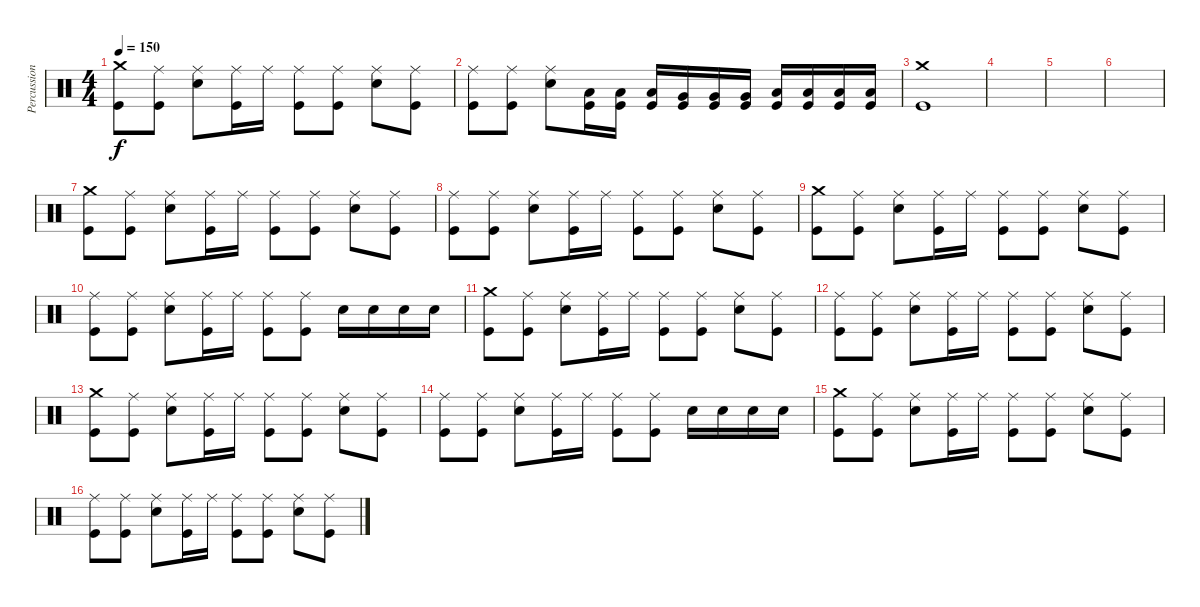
\track ("Percussion" "Percussion") {instrument percussion}
\staff {score}
\articulation defaults
\ts (4 4)
\tempo 150
\clef neutral
\ks c
("Crash medium (hit)" "Kick (hit)").8{dy f} ("Ride (middle)" "Kick (hit)").8 ("Ride (middle)" "Snare (hit) 2").8 ("Ride (middle)" "Kick (hit)").16 "Ride (middle)".16 ("Ride (middle)" "Kick (hit)").8 ("Ride (middle)" "Kick (hit)").8 ("Ride (middle)" "Snare (hit) 2").8 ("Ride (middle)" "Kick (hit)").8 |
("Ride (middle)" "Kick (hit)").8 ("Ride (middle)" "Kick (hit)").8 ("Ride (middle)" "Snare (hit) 2").8 ("Low Tom (hit)" "Kick (hit)").16 ("Low Tom (hit)" "Kick (hit)").16 ("Low Tom (hit)" "Kick (hit)").16 ("Very Low Tom (hit)" "Kick (hit)").16 ("Very Low Tom (hit)" "Kick (hit)").16 ("Very Low Tom (hit)" "Kick (hit)").16 ("Low Floor Tom (hit)" "Kick (hit)").16 ("Low Floor Tom (hit)" "Kick (hit)").16 ("Low Floor Tom (hit)" "Kick (hit)").16 ("Low Floor Tom (hit)" "Kick (hit)").16 |
("Crash medium (hit)" "Kick (hit)").1 |
|
|
|
("Crash medium (hit)" "Kick (hit)").8 ("Ride (middle)" "Kick (hit)").8 ("Ride (middle)" "Snare (hit) 2").8 ("Ride (middle)" "Kick (hit)").16 "Ride (middle)".16 ("Ride (middle)" "Kick (hit)").8 ("Ride (middle)" "Kick (hit)").8 ("Ride (middle)" "Snare (hit) 2").8 ("Ride (middle)" "Kick (hit)").8 |
("Ride (middle)" "Kick (hit)").8 ("Ride (middle)" "Kick (hit)").8 ("Ride (middle)" "Snare (hit) 2").8 ("Ride (middle)" "Kick (hit)").16 "Ride (middle)".16 ("Ride (middle)" "Kick (hit)").8 ("Ride (middle)" "Kick (hit)").8 ("Ride (middle)" "Snare (hit) 2").8 ("Ride (middle)" "Kick (hit)").8 |
("Crash medium (hit)" "Kick (hit)").8 ("Ride (middle)" "Kick (hit)").8 ("Ride (middle)" "Snare (hit) 2").8 ("Ride (middle)" "Kick (hit)").16 "Ride (middle)".16 ("Ride (middle)" "Kick (hit)").8 ("Ride (middle)" "Kick (hit)").8 ("Ride (middle)" "Snare (hit) 2").8 ("Ride (middle)" "Kick (hit)").8 |
("Ride (middle)" "Kick (hit)").8 ("Ride (middle)" "Kick (hit)").8 ("Ride (middle)" "Snare (hit) 2").8 ("Ride (middle)" "Kick (hit)").16 "Ride (middle)".16 ("Ride (middle)" "Kick (hit)").8 ("Ride (middle)" "Kick (hit)").8 "Snare (hit) 2".16 "Snare (hit) 2".16 "Snare (hit) 2".16 "Snare (hit) 2".16 |
("Crash medium (hit)" "Kick (hit)").8 ("Ride (middle)" "Kick (hit)").8 ("Ride (middle)" "Snare (hit) 2").8 ("Ride (middle)" "Kick (hit)").16 "Ride (middle)".16 ("Ride (middle)" "Kick (hit)").8 ("Ride (middle)" "Kick (hit)").8 ("Ride (middle)" "Snare (hit) 2").8 ("Ride (middle)" "Kick (hit)").8 |
("Ride (middle)" "Kick (hit)").8 ("Ride (middle)" "Kick (hit)").8 ("Ride (middle)" "Snare (hit) 2").8 ("Ride (middle)" "Kick (hit)").16 "Ride (middle)".16 ("Ride (middle)" "Kick (hit)").8 ("Ride (middle)" "Kick (hit)").8 ("Ride (middle)" "Snare (hit) 2").8 ("Ride (middle)" "Kick (hit)").8 |
("Crash medium (hit)" "Kick (hit)").8 ("Ride (middle)" "Kick (hit)").8 ("Ride (middle)" "Snare (hit) 2").8 ("Ride (middle)" "Kick (hit)").16 "Ride (middle)".16 ("Ride (middle)" "Kick (hit)").8 ("Ride (middle)" "Kick (hit)").8 ("Ride (middle)" "Snare (hit) 2").8 ("Ride (middle)" "Kick (hit)").8 |
("Ride (middle)" "Kick (hit)").8 ("Ride (middle)" "Kick (hit)").8 ("Ride (middle)" "Snare (hit) 2").8 ("Ride (middle)" "Kick (hit)").16 "Ride (middle)".16 ("Ride (middle)" "Kick (hit)").8 ("Ride (middle)" "Kick (hit)").8 "Snare (hit) 2".16 "Snare (hit) 2".16 "Snare (hit) 2".16 "Snare (hit) 2".16 |
("Crash medium (hit)" "Kick (hit)").8 ("Ride (middle)" "Kick (hit)").8 ("Ride (middle)" "Snare (hit) 2").8 ("Ride (middle)" "Kick (hit)").16 "Ride (middle)".16 ("Ride (middle)" "Kick (hit)").8 ("Ride (middle)" "Kick (hit)").8 ("Ride (middle)" "Snare (hit) 2").8 ("Ride (middle)" "Kick (hit)").8 |
("Ride (middle)" "Kick (hit)").8 ("Ride (middle)" "Kick (hit)").8 ("Ride (middle)" "Snare (hit) 2").8 ("Ride (middle)" "Kick (hit)").16 "Ride (middle)".16 ("Ride (middle)" "Kick (hit)").8 ("Ride (middle)" "Kick (hit)").8 ("Ride (middle)" "Snare (hit) 2").8 ("Ride (middle)" "Kick (hit)").8
